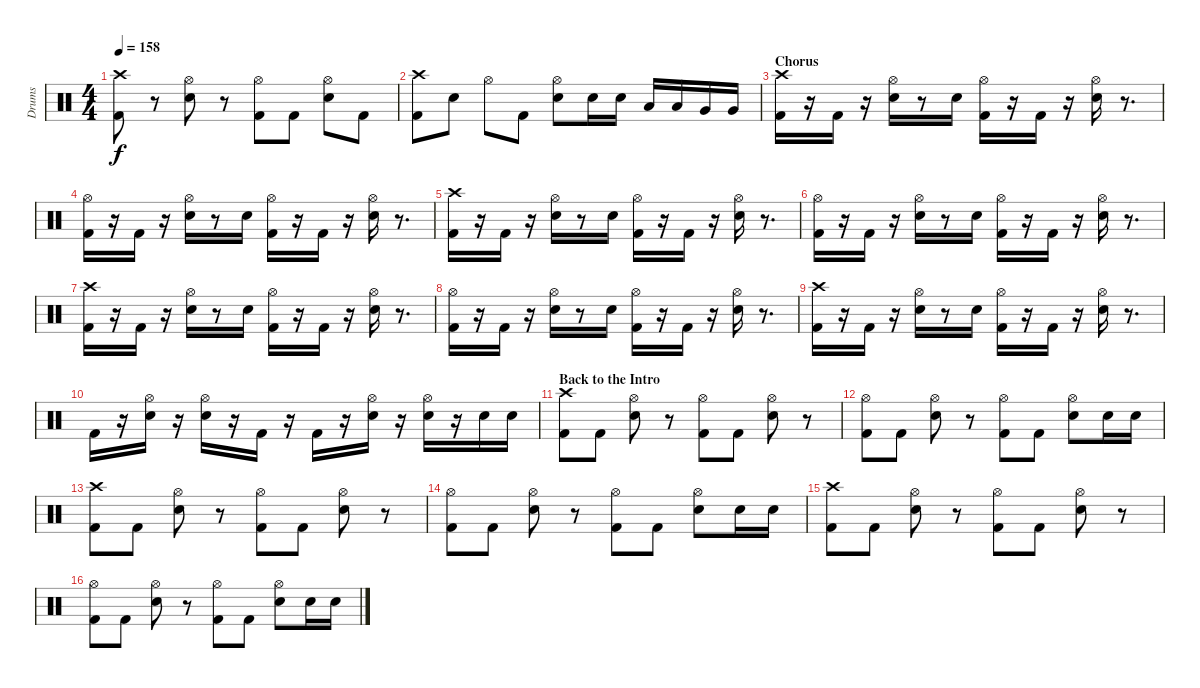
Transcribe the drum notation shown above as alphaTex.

\track ("Drums" "Drums") {instrument percussion}
\staff {score}
\articulation defaults
\ts (4 4)
\tempo 158
\clef neutral
\ks c
("Crash high (hit)" "Kick (hit) 2").8{dy f} r.8 ("Hi-Hat (open)" "Electric Snare (hit)").8 r.8 ("Hi-Hat (open)" "Kick (hit) 2").8 "Kick (hit) 2".8 ("Hi-Hat (open)" "Electric Snare (hit)").8 "Kick (hit) 2".8 |
("Crash high (hit)" "Kick (hit) 2").8 "Electric Snare (hit)".8 "Hi-Hat (open)".8 "Kick (hit) 2".8 ("Hi-Hat (open)" "Electric Snare (hit)").8 "Electric Snare (hit)".16 "Electric Snare (hit)".16 "Low Tom (hit)".16 "Low Tom (hit)".16 "Very Low Tom (hit)".16 "Very Low Tom (hit)".16 |
\section ("" "Chorus")
("Crash high (hit)" "Kick (hit) 2").16 r.16 "Kick (hit) 2".16 r.16 ("Hi-Hat (open)" "Electric Snare (hit)").16 r.8 "Electric Snare (hit)".16 ("Hi-Hat (open)" "Kick (hit) 2").16 r.16 "Kick (hit) 2".16 r.16 ("Hi-Hat (open)" "Electric Snare (hit)").16 r.8{d} |
("Hi-Hat (open)" "Kick (hit) 2").16 r.16 "Kick (hit) 2".16 r.16 ("Hi-Hat (open)" "Electric Snare (hit)").16 r.8 "Electric Snare (hit)".16 ("Hi-Hat (open)" "Kick (hit) 2").16 r.16 "Kick (hit) 2".16 r.16 ("Hi-Hat (open)" "Electric Snare (hit)").16 r.8{d} |
("Crash high (hit)" "Kick (hit) 2").16 r.16 "Kick (hit) 2".16 r.16 ("Hi-Hat (open)" "Electric Snare (hit)").16 r.8 "Electric Snare (hit)".16 ("Hi-Hat (open)" "Kick (hit) 2").16 r.16 "Kick (hit) 2".16 r.16 ("Hi-Hat (open)" "Electric Snare (hit)").16 r.8{d} |
("Hi-Hat (open)" "Kick (hit) 2").16 r.16 "Kick (hit) 2".16 r.16 ("Hi-Hat (open)" "Electric Snare (hit)").16 r.8 "Electric Snare (hit)".16 ("Hi-Hat (open)" "Kick (hit) 2").16 r.16 "Kick (hit) 2".16 r.16 ("Hi-Hat (open)" "Electric Snare (hit)").16 r.8{d} |
("Crash high (hit)" "Kick (hit) 2").16 r.16 "Kick (hit) 2".16 r.16 ("Hi-Hat (open)" "Electric Snare (hit)").16 r.8 "Electric Snare (hit)".16 ("Hi-Hat (open)" "Kick (hit) 2").16 r.16 "Kick (hit) 2".16 r.16 ("Hi-Hat (open)" "Electric Snare (hit)").16 r.8{d} |
("Hi-Hat (open)" "Kick (hit) 2").16 r.16 "Kick (hit) 2".16 r.16 ("Hi-Hat (open)" "Electric Snare (hit)").16 r.8 "Electric Snare (hit)".16 ("Hi-Hat (open)" "Kick (hit) 2").16 r.16 "Kick (hit) 2".16 r.16 ("Hi-Hat (open)" "Electric Snare (hit)").16 r.8{d} |
("Crash high (hit)" "Kick (hit) 2").16 r.16 "Kick (hit) 2".16 r.16 ("Hi-Hat (open)" "Electric Snare (hit)").16 r.8 "Electric Snare (hit)".16 ("Hi-Hat (open)" "Kick (hit) 2").16 r.16 "Kick (hit) 2".16 r.16 ("Hi-Hat (open)" "Electric Snare (hit)").16 r.8{d} |
"Kick (hit) 2".16 r.16 ("Hi-Hat (open)" "Electric Snare (hit)").16 r.16 ("Hi-Hat (open)" "Electric Snare (hit)").16 r.16 "Kick (hit) 2".16 r.16 "Kick (hit) 2".16 r.16 ("Hi-Hat (open)" "Electric Snare (hit)").16 r.16 ("Hi-Hat (open)" "Electric Snare (hit)").16 r.16 "Electric Snare (hit)".16 "Electric Snare (hit)".16 |
\section ("" "Back to the Intro")
("Crash high (hit)" "Kick (hit) 2").8 "Kick (hit) 2".8 ("Hi-Hat (open)" "Electric Snare (hit)").8 r.8 ("Hi-Hat (open)" "Kick (hit) 2").8 "Kick (hit) 2".8 ("Hi-Hat (open)" "Electric Snare (hit)").8 r.8 |
("Hi-Hat (open)" "Kick (hit) 2").8 "Kick (hit) 2".8 ("Hi-Hat (open)" "Electric Snare (hit)").8 r.8 ("Hi-Hat (open)" "Kick (hit) 2").8 "Kick (hit) 2".8 ("Hi-Hat (open)" "Electric Snare (hit)").8 "Electric Snare (hit)".16 "Electric Snare (hit)".16 |
("Crash high (hit)" "Kick (hit) 2").8 "Kick (hit) 2".8 ("Hi-Hat (open)" "Electric Snare (hit)").8 r.8 ("Hi-Hat (open)" "Kick (hit) 2").8 "Kick (hit) 2".8 ("Hi-Hat (open)" "Electric Snare (hit)").8 r.8 |
("Hi-Hat (open)" "Kick (hit) 2").8 "Kick (hit) 2".8 ("Hi-Hat (open)" "Electric Snare (hit)").8 r.8 ("Hi-Hat (open)" "Kick (hit) 2").8 "Kick (hit) 2".8 ("Hi-Hat (open)" "Electric Snare (hit)").8 "Electric Snare (hit)".16 "Electric Snare (hit)".16 |
("Crash high (hit)" "Kick (hit) 2").8 "Kick (hit) 2".8 ("Hi-Hat (open)" "Electric Snare (hit)").8 r.8 ("Hi-Hat (open)" "Kick (hit) 2").8 "Kick (hit) 2".8 ("Hi-Hat (open)" "Electric Snare (hit)").8 r.8 |
("Hi-Hat (open)" "Kick (hit) 2").8 "Kick (hit) 2".8 ("Hi-Hat (open)" "Electric Snare (hit)").8 r.8 ("Hi-Hat (open)" "Kick (hit) 2").8 "Kick (hit) 2".8 ("Hi-Hat (open)" "Electric Snare (hit)").8 "Electric Snare (hit)".16 "Electric Snare (hit)".16
